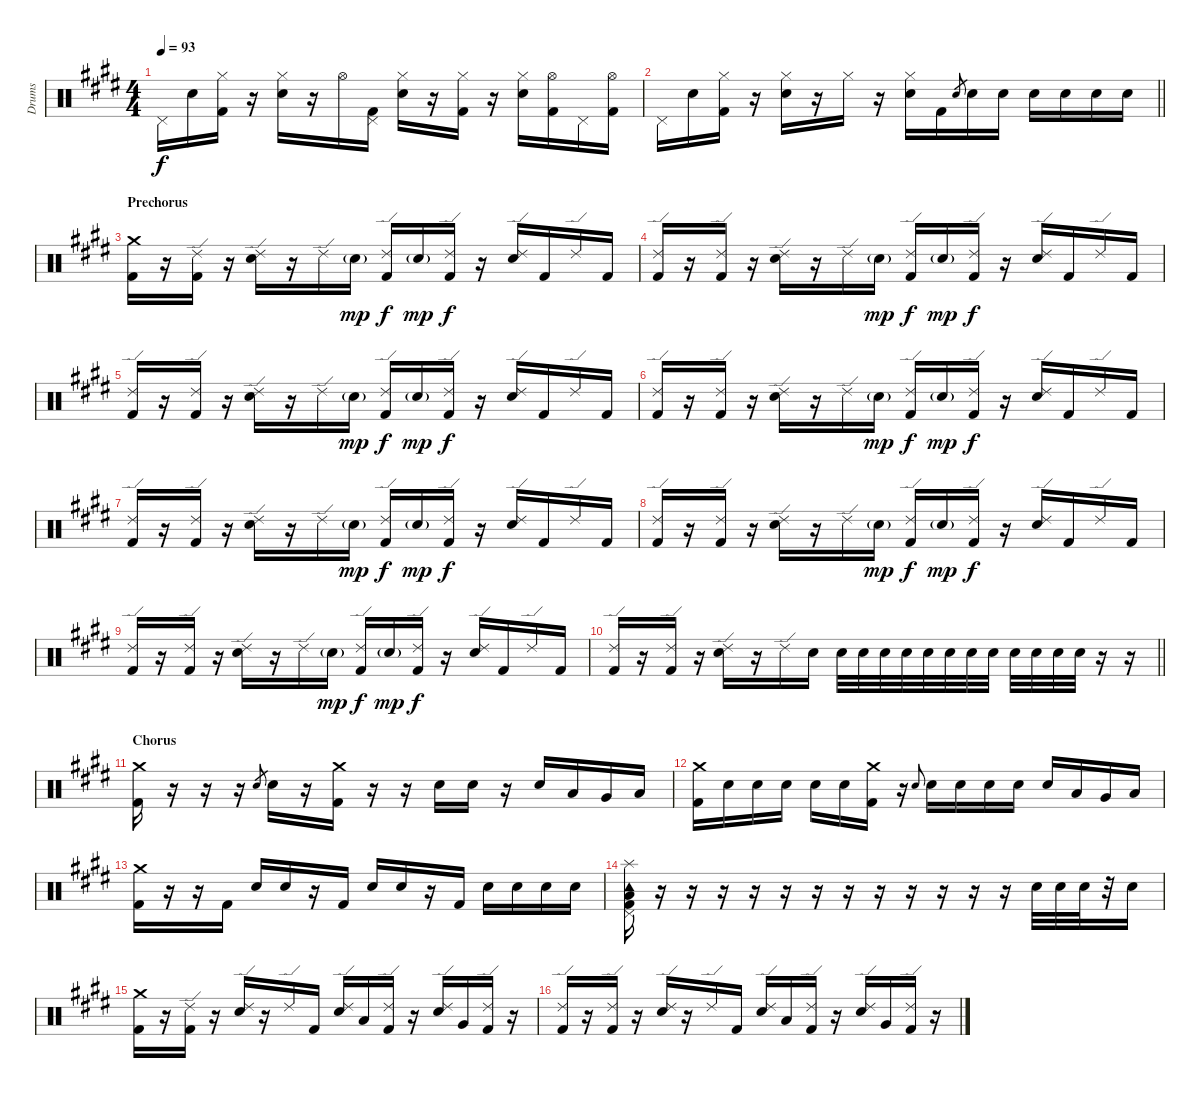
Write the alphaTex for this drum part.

\track ("Drums" "Drums") {instrument percussion}
\staff {score}
\articulation defaults
\ts (4 4)
\tempo 93
\clef neutral
\ks e "Pedal Hi-Hat (hit)".16{dy f} "Snare (hit) 2".16
("Hi-Hat (closed)" "Kick (hit) 2").16 r.16 ("Hi-Hat (closed)" "Snare (hit) 2").16 r.16 "Hi-Hat (open)".16 ("Pedal Hi-Hat (hit)" "Kick (hit) 2").16 ("Hi-Hat (closed)" "Snare (hit) 2").16 r.16 ("Hi-Hat (closed)" "Kick (hit) 2").16 r.16 ("Hi-Hat (closed)" "Snare (hit) 2").16 ("Hi-Hat (open)" "Kick (hit) 2").16 "Pedal Hi-Hat (hit)".16 ("Hi-Hat (open)" "Kick (hit) 2").16 |
\barLineRight lightlight "Pedal Hi-Hat (hit)".16 "Snare (hit) 2".16
("Hi-Hat (closed)" "Kick (hit) 2").16 r.16 ("Hi-Hat (closed)" "Snare (hit) 2").16 r.16 "Hi-Hat (closed)".16 r.16 ("Hi-Hat (closed)" "Snare (hit) 2").16 "Kick (hit) 2".16 "Snare (hit) 2".8{gr} "Snare (hit) 2".16 "Snare (hit) 2".16 "Snare (hit) 2".16 "Snare (hit) 2".16 "Snare (hit) 2".16 "Snare (hit) 2".16 |
\section ("" "Prechorus")
("Crash medium (hit)" "Kick (hit) 2").16 r.16 ("Ride (edge) 2" "Kick (hit) 2").16 r.16 ("Ride (edge) 2" "Snare (hit) 2").16 r.16 "Ride (edge) 2".16 "Snare (hit) 2"{g}.16{dy mp} ("Ride (edge) 2" "Kick (hit) 2").16{dy f} "Snare (hit) 2"{g}.16{dy mp} ("Ride (edge) 2" "Kick (hit) 2").16{dy f} r.16 ("Ride (edge) 2" "Snare (hit) 2").16 "Kick (hit) 2".16 "Ride (edge) 2".16 "Kick (hit) 2".16 |
("Ride (edge) 2" "Kick (hit) 2").16 r.16 ("Ride (edge) 2" "Kick (hit) 2").16 r.16 ("Ride (edge) 2" "Snare (hit) 2").16 r.16 "Ride (edge) 2".16 "Snare (hit) 2"{g}.16{dy mp} ("Ride (edge) 2" "Kick (hit) 2").16{dy f} "Snare (hit) 2"{g}.16{dy mp} ("Ride (edge) 2" "Kick (hit) 2").16{dy f} r.16 ("Ride (edge) 2" "Snare (hit) 2").16 "Kick (hit) 2".16 "Ride (edge) 2".16 "Kick (hit) 2".16 |
("Ride (edge) 2" "Kick (hit) 2").16 r.16 ("Ride (edge) 2" "Kick (hit) 2").16 r.16 ("Ride (edge) 2" "Snare (hit) 2").16 r.16 "Ride (edge) 2".16 "Snare (hit) 2"{g}.16{dy mp} ("Ride (edge) 2" "Kick (hit) 2").16{dy f} "Snare (hit) 2"{g}.16{dy mp} ("Ride (edge) 2" "Kick (hit) 2").16{dy f} r.16 ("Ride (edge) 2" "Snare (hit) 2").16 "Kick (hit) 2".16 "Ride (edge) 2".16 "Kick (hit) 2".16 |
("Ride (edge) 2" "Kick (hit) 2").16 r.16 ("Ride (edge) 2" "Kick (hit) 2").16 r.16 ("Ride (edge) 2" "Snare (hit) 2").16 r.16 "Ride (edge) 2".16 "Snare (hit) 2"{g}.16{dy mp} ("Ride (edge) 2" "Kick (hit) 2").16{dy f} "Snare (hit) 2"{g}.16{dy mp} ("Ride (edge) 2" "Kick (hit) 2").16{dy f} r.16 ("Ride (edge) 2" "Snare (hit) 2").16 "Kick (hit) 2".16 "Ride (edge) 2".16 "Kick (hit) 2".16 |
("Ride (edge) 2" "Kick (hit) 2").16 r.16 ("Ride (edge) 2" "Kick (hit) 2").16 r.16 ("Ride (edge) 2" "Snare (hit) 2").16 r.16 "Ride (edge) 2".16 "Snare (hit) 2"{g}.16{dy mp} ("Ride (edge) 2" "Kick (hit) 2").16{dy f} "Snare (hit) 2"{g}.16{dy mp} ("Ride (edge) 2" "Kick (hit) 2").16{dy f} r.16 ("Ride (edge) 2" "Snare (hit) 2").16 "Kick (hit) 2".16 "Ride (edge) 2".16 "Kick (hit) 2".16 |
("Ride (edge) 2" "Kick (hit) 2").16 r.16 ("Ride (edge) 2" "Kick (hit) 2").16 r.16 ("Ride (edge) 2" "Snare (hit) 2").16 r.16 "Ride (edge) 2".16 "Snare (hit) 2"{g}.16{dy mp} ("Ride (edge) 2" "Kick (hit) 2").16{dy f} "Snare (hit) 2"{g}.16{dy mp} ("Ride (edge) 2" "Kick (hit) 2").16{dy f} r.16 ("Ride (edge) 2" "Snare (hit) 2").16 "Kick (hit) 2".16 "Ride (edge) 2".16 "Kick (hit) 2".16 |
("Ride (edge) 2" "Kick (hit) 2").16 r.16 ("Ride (edge) 2" "Kick (hit) 2").16 r.16 ("Ride (edge) 2" "Snare (hit) 2").16 r.16 "Ride (edge) 2".16 "Snare (hit) 2"{g}.16{dy mp} ("Ride (edge) 2" "Kick (hit) 2").16{dy f} "Snare (hit) 2"{g}.16{dy mp} ("Ride (edge) 2" "Kick (hit) 2").16{dy f} r.16 ("Ride (edge) 2" "Snare (hit) 2").16 "Kick (hit) 2".16 "Ride (edge) 2".16 "Kick (hit) 2".16 |
\barLineRight lightlight
("Ride (edge) 2" "Kick (hit) 2").16 r.16 ("Ride (edge) 2" "Kick (hit) 2").16 r.16 ("Ride (edge) 2" "Snare (hit) 2").16 r.16 "Ride (edge) 2".16 "Snare (hit) 2".16 "Snare (hit) 2".32 "Snare (hit) 2".32 "Snare (hit) 2".32 "Snare (hit) 2".32 "Snare (hit) 2".32 "Snare (hit) 2".32 "Snare (hit) 2".32 "Snare (hit) 2".32 "Snare (hit) 2".32 "Snare (hit) 2".32 "Snare (hit) 2".32 "Snare (hit) 2".32 r.16 r.16 |
\section ("" "Chorus")
("Crash medium (hit)" "Kick (hit) 2").16 r.16 r.16 r.16 "Snare (hit) 2".8{gr} "Snare (hit) 2".16 r.16 ("Crash medium (hit)" "Kick (hit) 2").16 r.16 r.16 "Snare (hit) 2".16 "Snare (hit) 2".16 r.16 "Snare (hit) 2".16 "Low Tom (hit)".16 "Very Low Tom (hit)".16 "Low Floor Tom (hit)".16 |
("Crash medium (hit)" "Kick (hit) 2").16 "Snare (hit) 2".16 "Snare (hit) 2".16 "Snare (hit) 2".16 "Snare (hit) 2".16 "Snare (hit) 2".16 ("Crash medium (hit)" "Kick (hit) 2").16 r.16 "Snare (hit) 2".8{gr onbeat} "Snare (hit) 2".16 "Snare (hit) 2".16 "Snare (hit) 2".16 "Snare (hit) 2".16 "Snare (hit) 2".16 "Low Tom (hit)".16 "Very Low Tom (hit)".16 "Low Floor Tom (hit)".16 |
("Crash medium (hit)" "Kick (hit) 2").16 r.16 r.16 "Kick (hit) 2".16 "Snare (hit) 2".16 "Snare (hit) 2".16 r.16 "Kick (hit) 2".16 "Snare (hit) 2".16 "Snare (hit) 2".16 r.16 "Kick (hit) 2".16 "Snare (hit) 2".16 "Snare (hit) 2".16 "Snare (hit) 2".16 "Snare (hit) 2".16 |
("Pedal Hi-Hat (hit)" "Tambourine (hit)" "Splash (hit)" "Low Floor Tom (hit)" "Kick (hit) 2").16 r.16 r.16 r.16 r.16 r.16 r.16 r.16 r.16 r.16 r.16 r.16 r.16 "Snare (hit) 2".32 "Snare (hit) 2".32 "Snare (hit) 2".32 r.32 "Snare (hit) 2".16 |
("Crash medium (hit)" "Kick (hit) 2").16 r.16 ("Ride (edge) 2" "Kick (hit) 2").16 r.16 ("Ride (edge) 2" "Snare (hit) 2").16 r.16 "Ride (edge) 2".16 "Kick (hit) 2".16 ("Ride (edge) 2" "Snare (hit) 2").16 "Low Tom (hit)".16 ("Ride (edge) 2" "Kick (hit) 2").16 r.16 ("Ride (edge) 2" "Snare (hit) 2").16 "Very Low Tom (hit)".16 ("Ride (edge) 2" "Kick (hit) 2").16 r.16 |
("Ride (edge) 2" "Kick (hit) 2").16 r.16 ("Ride (edge) 2" "Kick (hit) 2").16 r.16 ("Ride (edge) 2" "Snare (hit) 2").16 r.16 "Ride (edge) 2".16 "Kick (hit) 2".16 ("Ride (edge) 2" "Snare (hit) 2").16 "Low Tom (hit)".16 ("Ride (edge) 2" "Kick (hit) 2").16 r.16 ("Ride (edge) 2" "Snare (hit) 2").16 "Very Low Tom (hit)".16 ("Ride (edge) 2" "Kick (hit) 2").16 r.16
